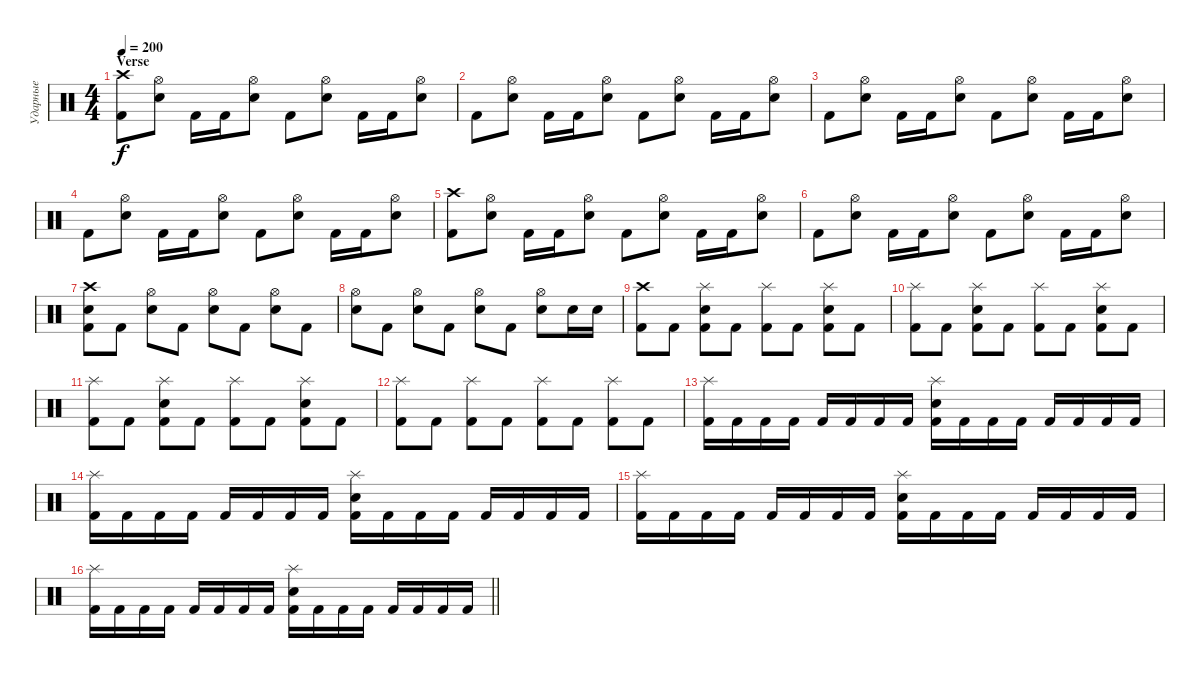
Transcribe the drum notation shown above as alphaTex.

\track ("Ударные" "Ударные") {instrument percussion}
\staff {score}
\articulation defaults
\ts (4 4)
\section ("" "Verse")
\tempo 200
\clef neutral
\ks c
("Crash high (hit)" "Kick (hit) 2").8{dy f} ("Hi-Hat (open)" "Electric Snare (hit)").8 "Kick (hit) 2".16 "Kick (hit) 2".16 ("Hi-Hat (open)" "Electric Snare (hit)").8 "Kick (hit) 2".8 ("Hi-Hat (open)" "Electric Snare (hit)").8 "Kick (hit) 2".16 "Kick (hit) 2".16 ("Hi-Hat (open)" "Electric Snare (hit)").8 |
"Kick (hit) 2".8 ("Hi-Hat (open)" "Electric Snare (hit)").8 "Kick (hit) 2".16 "Kick (hit) 2".16 ("Hi-Hat (open)" "Electric Snare (hit)").8 "Kick (hit) 2".8 ("Hi-Hat (open)" "Electric Snare (hit)").8 "Kick (hit) 2".16 "Kick (hit) 2".16 ("Hi-Hat (open)" "Electric Snare (hit)").8 |
"Kick (hit) 2".8 ("Hi-Hat (open)" "Electric Snare (hit)").8 "Kick (hit) 2".16 "Kick (hit) 2".16 ("Hi-Hat (open)" "Electric Snare (hit)").8 "Kick (hit) 2".8 ("Hi-Hat (open)" "Electric Snare (hit)").8 "Kick (hit) 2".16 "Kick (hit) 2".16 ("Hi-Hat (open)" "Electric Snare (hit)").8 |
"Kick (hit) 2".8 ("Hi-Hat (open)" "Electric Snare (hit)").8 "Kick (hit) 2".16 "Kick (hit) 2".16 ("Hi-Hat (open)" "Electric Snare (hit)").8 "Kick (hit) 2".8 ("Hi-Hat (open)" "Electric Snare (hit)").8 "Kick (hit) 2".16 "Kick (hit) 2".16 ("Hi-Hat (open)" "Electric Snare (hit)").8 |
("Crash high (hit)" "Kick (hit) 2").8 ("Hi-Hat (open)" "Electric Snare (hit)").8 "Kick (hit) 2".16 "Kick (hit) 2".16 ("Hi-Hat (open)" "Electric Snare (hit)").8 "Kick (hit) 2".8 ("Hi-Hat (open)" "Electric Snare (hit)").8 "Kick (hit) 2".16 "Kick (hit) 2".16 ("Hi-Hat (open)" "Electric Snare (hit)").8 |
"Kick (hit) 2".8 ("Hi-Hat (open)" "Electric Snare (hit)").8 "Kick (hit) 2".16 "Kick (hit) 2".16 ("Hi-Hat (open)" "Electric Snare (hit)").8 "Kick (hit) 2".8 ("Hi-Hat (open)" "Electric Snare (hit)").8 "Kick (hit) 2".16 "Kick (hit) 2".16 ("Hi-Hat (open)" "Electric Snare (hit)").8 |
("Crash high (hit)" "Electric Snare (hit)" "Kick (hit) 2").8 "Kick (hit) 2".8 ("Hi-Hat (open)" "Electric Snare (hit)").8 "Kick (hit) 2".8 ("Hi-Hat (open)" "Electric Snare (hit)").8 "Kick (hit) 2".8 ("Hi-Hat (open)" "Electric Snare (hit)").8 "Kick (hit) 2".8 |
("Hi-Hat (open)" "Electric Snare (hit)").8 "Kick (hit) 2".8 ("Hi-Hat (open)" "Electric Snare (hit)").8 "Kick (hit) 2".8 ("Hi-Hat (open)" "Electric Snare (hit)").8 "Kick (hit) 2".8 ("Hi-Hat (open)" "Electric Snare (hit)").8 "Electric Snare (hit)".16 "Electric Snare (hit)".16 |
("Crash high (hit)" "Kick (hit) 2").8 "Kick (hit) 2".8 ("Splash (hit)" "Electric Snare (hit)" "Kick (hit) 2").8 "Kick (hit) 2".8 ("Splash (hit)" "Kick (hit) 2").8 "Kick (hit) 2".8 ("Splash (hit)" "Electric Snare (hit)" "Kick (hit) 2").8 "Kick (hit) 2".8 |
("Splash (hit)" "Kick (hit) 2").8 "Kick (hit) 2".8 ("Splash (hit)" "Electric Snare (hit)" "Kick (hit) 2").8 "Kick (hit) 2".8 ("Splash (hit)" "Kick (hit) 2").8 "Kick (hit) 2".8 ("Splash (hit)" "Electric Snare (hit)" "Kick (hit) 2").8 "Kick (hit) 2".8 |
("Splash (hit)" "Kick (hit) 2").8 "Kick (hit) 2".8 ("Splash (hit)" "Electric Snare (hit)" "Kick (hit) 2").8 "Kick (hit) 2".8 ("Splash (hit)" "Kick (hit) 2").8 "Kick (hit) 2".8 ("Splash (hit)" "Electric Snare (hit)" "Kick (hit) 2").8 "Kick (hit) 2".8 |
("Splash (hit)" "Kick (hit) 2").8 "Kick (hit) 2".8 ("Splash (hit)" "Kick (hit) 2").8 "Kick (hit) 2".8 ("Splash (hit)" "Kick (hit) 2").8 "Kick (hit) 2".8 ("Splash (hit)" "Kick (hit) 2").8 "Kick (hit) 2".8 |
("Splash (hit)" "Kick (hit) 2").16 "Kick (hit) 2".16 "Kick (hit) 2".16 "Kick (hit) 2".16 "Kick (hit) 2".16 "Kick (hit) 2".16 "Kick (hit) 2".16 "Kick (hit) 2".16 ("Splash (hit)" "Electric Snare (hit)" "Kick (hit) 2").16 "Kick (hit) 2".16 "Kick (hit) 2".16 "Kick (hit) 2".16 "Kick (hit) 2".16 "Kick (hit) 2".16 "Kick (hit) 2".16 "Kick (hit) 2".16 |
("Splash (hit)" "Kick (hit) 2").16 "Kick (hit) 2".16 "Kick (hit) 2".16 "Kick (hit) 2".16 "Kick (hit) 2".16 "Kick (hit) 2".16 "Kick (hit) 2".16 "Kick (hit) 2".16 ("Splash (hit)" "Electric Snare (hit)" "Kick (hit) 2").16 "Kick (hit) 2".16 "Kick (hit) 2".16 "Kick (hit) 2".16 "Kick (hit) 2".16 "Kick (hit) 2".16 "Kick (hit) 2".16 "Kick (hit) 2".16 |
("Splash (hit)" "Kick (hit) 2").16 "Kick (hit) 2".16 "Kick (hit) 2".16 "Kick (hit) 2".16 "Kick (hit) 2".16 "Kick (hit) 2".16 "Kick (hit) 2".16 "Kick (hit) 2".16 ("Splash (hit)" "Electric Snare (hit)" "Kick (hit) 2").16 "Kick (hit) 2".16 "Kick (hit) 2".16 "Kick (hit) 2".16 "Kick (hit) 2".16 "Kick (hit) 2".16 "Kick (hit) 2".16 "Kick (hit) 2".16 |
\barLineRight lightlight
("Splash (hit)" "Kick (hit) 2").16 "Kick (hit) 2".16 "Kick (hit) 2".16 "Kick (hit) 2".16 "Kick (hit) 2".16 "Kick (hit) 2".16 "Kick (hit) 2".16 "Kick (hit) 2".16 ("Splash (hit)" "Electric Snare (hit)" "Kick (hit) 2").16 "Kick (hit) 2".16 "Kick (hit) 2".16 "Kick (hit) 2".16 "Kick (hit) 2".16 "Kick (hit) 2".16 "Kick (hit) 2".16 "Kick (hit) 2".16
